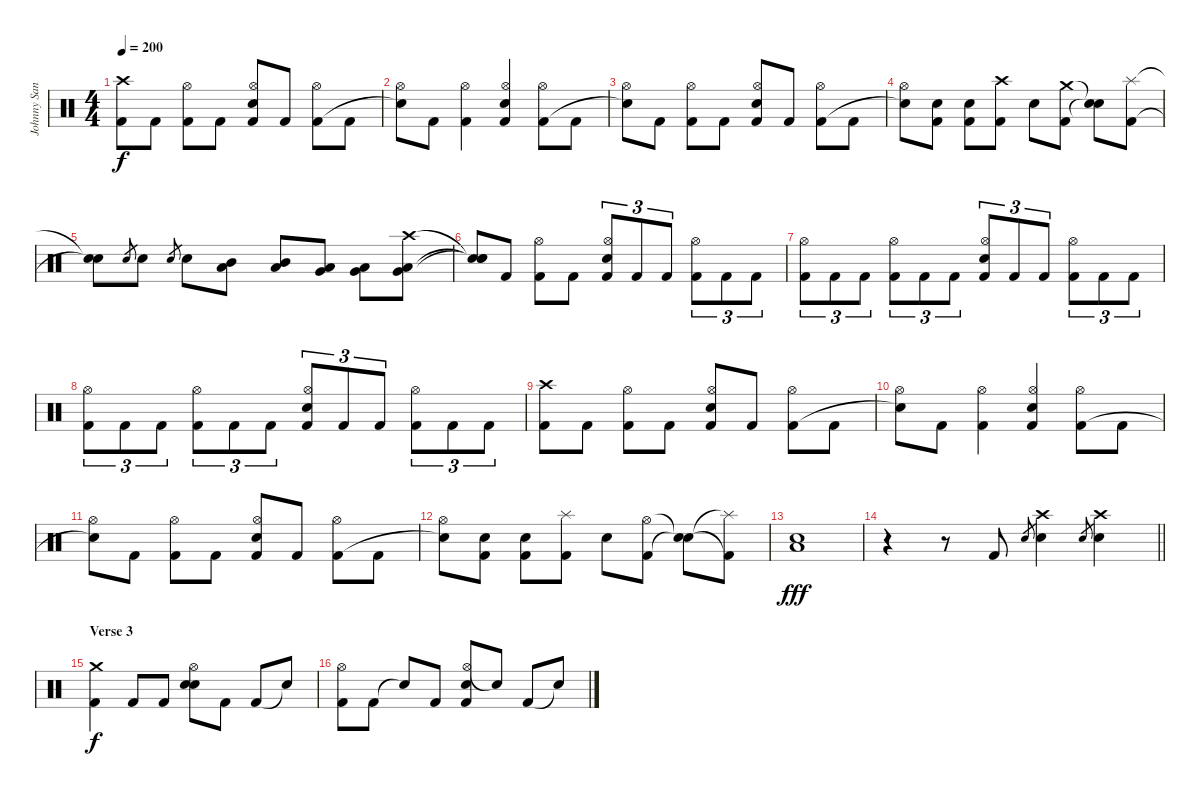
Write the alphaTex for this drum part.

\track ("Johnny Sandin" "Johnny San") {instrument percussion}
\staff {score}
\articulation defaults
\ts (4 4)
\tempo 200
\clef neutral
\ks c
("Crash high (hit)" "Kick (hit) 2").8{dy f} "Kick (hit) 2".8 ("Hi-Hat (open)" "Kick (hit) 2").8 "Kick (hit) 2".8 ("Hi-Hat (open)" "Snare (hit) 2" "Kick (hit) 2").8 "Kick (hit) 2".8 ("Hi-Hat (open)" "Kick (hit) 2").8 "Kick (hit) 2".8 |
("Hi-Hat (open)" "Snare (hit)"{t}).8 "Kick (hit) 2".8 ("Hi-Hat (open)" "Kick (hit) 2").4 ("Hi-Hat (open)" "Snare (hit) 2" "Kick (hit) 2").4 ("Hi-Hat (open)" "Kick (hit) 2").8 "Kick (hit) 2".8 |
("Hi-Hat (open)" "Snare (hit)"{t}).8 "Kick (hit) 2".8 ("Hi-Hat (open)" "Kick (hit) 2").8 "Kick (hit) 2".8 ("Hi-Hat (open)" "Snare (hit) 2" "Kick (hit) 2").8 "Kick (hit) 2".8 ("Hi-Hat (open)" "Kick (hit) 2").8 "Kick (hit) 2".8 |
("Hi-Hat (open)" "Snare (hit)"{t}).8 ("Snare (hit) 2" "Kick (hit) 2").8 ("Snare (hit) 2" "Kick (hit) 2").8 ("Crash high (hit)" "Kick (hit) 2").8 "Snare (hit) 2".8 ("Crash medium (hit)" "Kick (hit) 2").8 ("Snare (hit)"{t} "Snare (hit)"{t}).8 ("Splash (hit)" "Kick (hit) 2").8 |
("Snare (hit)"{t} "Snare (hit)"{t}).8 "Snare (hit) 2".8{gr} "Snare (hit) 2".8 "Snare (hit) 2".8{gr} "Snare (hit) 2".8 ("Mid Tom (hit)" "Low Tom (hit)").8 ("Mid Tom (hit)" "Low Tom (hit)").8 ("Low Tom (hit)" "Very Low Tom (hit)").8 ("Low Tom (hit)" "Very Low Tom (hit)").8 ("Crash high (hit)" "Very Low Tom (hit)" "Low Floor Tom (hit)").8 |
("Snare (hit)"{t} "Snare (hit)"{t} "Snare (hit)"{t}).8 "Kick (hit) 2".8 ("Hi-Hat (open)" "Kick (hit) 2").8 "Kick (hit) 2".8 ("Hi-Hat (open)" "Snare (hit) 2" "Kick (hit) 2").8{tu (3 2)} "Kick (hit) 2".8{tu (3 2)} "Kick (hit) 2".8{tu (3 2)} ("Hi-Hat (open)" "Kick (hit) 2").8{tu (3 2)} "Kick (hit) 2".8{tu (3 2)} "Kick (hit) 2".8{tu (3 2)} |
("Hi-Hat (open)" "Kick (hit) 2").8{tu (3 2)} "Kick (hit) 2".8{tu (3 2)} "Kick (hit) 2".8{tu (3 2)} ("Hi-Hat (open)" "Kick (hit) 2").8{tu (3 2)} "Kick (hit) 2".8{tu (3 2)} "Kick (hit) 2".8{tu (3 2)} ("Hi-Hat (open)" "Snare (hit) 2" "Kick (hit) 2").8{tu (3 2)} "Kick (hit) 2".8{tu (3 2)} "Kick (hit) 2".8{tu (3 2)} ("Hi-Hat (open)" "Kick (hit) 2").8{tu (3 2)} "Kick (hit) 2".8{tu (3 2)} "Kick (hit) 2".8{tu (3 2)} |
("Hi-Hat (open)" "Kick (hit) 2").8{tu (3 2)} "Kick (hit) 2".8{tu (3 2)} "Kick (hit) 2".8{tu (3 2)} ("Hi-Hat (open)" "Kick (hit) 2").8{tu (3 2)} "Kick (hit) 2".8{tu (3 2)} "Kick (hit) 2".8{tu (3 2)} ("Hi-Hat (open)" "Snare (hit) 2" "Kick (hit) 2").8{tu (3 2)} "Kick (hit) 2".8{tu (3 2)} "Kick (hit) 2".8{tu (3 2)} ("Hi-Hat (open)" "Kick (hit) 2").8{tu (3 2)} "Kick (hit) 2".8{tu (3 2)} "Kick (hit) 2".8{tu (3 2)} |
("Crash high (hit)" "Kick (hit) 2").8 "Kick (hit) 2".8 ("Hi-Hat (open)" "Kick (hit) 2").8 "Kick (hit) 2".8 ("Hi-Hat (open)" "Snare (hit) 2" "Kick (hit) 2").8 "Kick (hit) 2".8 ("Hi-Hat (open)" "Kick (hit) 2").8 "Kick (hit) 2".8 |
("Hi-Hat (open)" "Snare (hit)"{t}).8 "Kick (hit) 2".8 ("Hi-Hat (open)" "Kick (hit) 2").4 ("Hi-Hat (open)" "Snare (hit) 2" "Kick (hit) 2").4 ("Hi-Hat (open)" "Kick (hit) 2").8 "Kick (hit) 2".8 |
("Hi-Hat (open)" "Snare (hit)"{t}).8 "Kick (hit) 2".8 ("Hi-Hat (open)" "Kick (hit) 2").8 "Kick (hit) 2".8 ("Hi-Hat (open)" "Snare (hit) 2" "Kick (hit) 2").8 "Kick (hit) 2".8 ("Hi-Hat (open)" "Kick (hit) 2").8 "Kick (hit) 2".8 |
("Hi-Hat (open)" "Snare (hit)"{t}).8 ("Snare (hit) 2" "Kick (hit) 2").8 ("Snare (hit) 2" "Kick (hit) 2").8 ("Splash (hit)" "Kick (hit) 2").8 "Snare (hit) 2".8 ("Hi-Hat (open)" "Kick (hit) 2").8 ("Snare (hit)"{t} "Snare (hit)"{t}).8 ("Splash (hit)"{t} "Kick (hit) 2"{t}).8 |
("Snare (hit) 2" "Low Floor Tom (hit)").1{dy fff} |
\barLineRight lightlight
r.4 r.8 "Kick (hit) 2".8 "Snare (hit) 2".8{gr} ("Crash high (hit)" "Snare (hit) 2").4 "Snare (hit) 2".8{gr} ("Crash high (hit)" "Snare (hit) 2").4 |
\section ("" "Verse 3")
("Crash medium (hit)" "Kick (hit) 2").4{dy f} "Kick (hit) 2".8 "Kick (hit) 2".8 ("Hi-Hat (open)" "Snare (hit) 2" "Snare (hit)").8 "Kick (hit) 2".8 "Kick (hit) 2".8 "Snare (hit)"{t}.8 |
("Hi-Hat (open)" "Kick (hit) 2").8 "Kick (hit) 2".8 "Snare (hit)"{t}.8 "Kick (hit) 2".8 ("Hi-Hat (open)" "Snare (hit) 2" "Kick (hit) 2").8 "Snare (hit)"{t}.8 "Kick (hit) 2".8 "Snare (hit)"{t}.8
